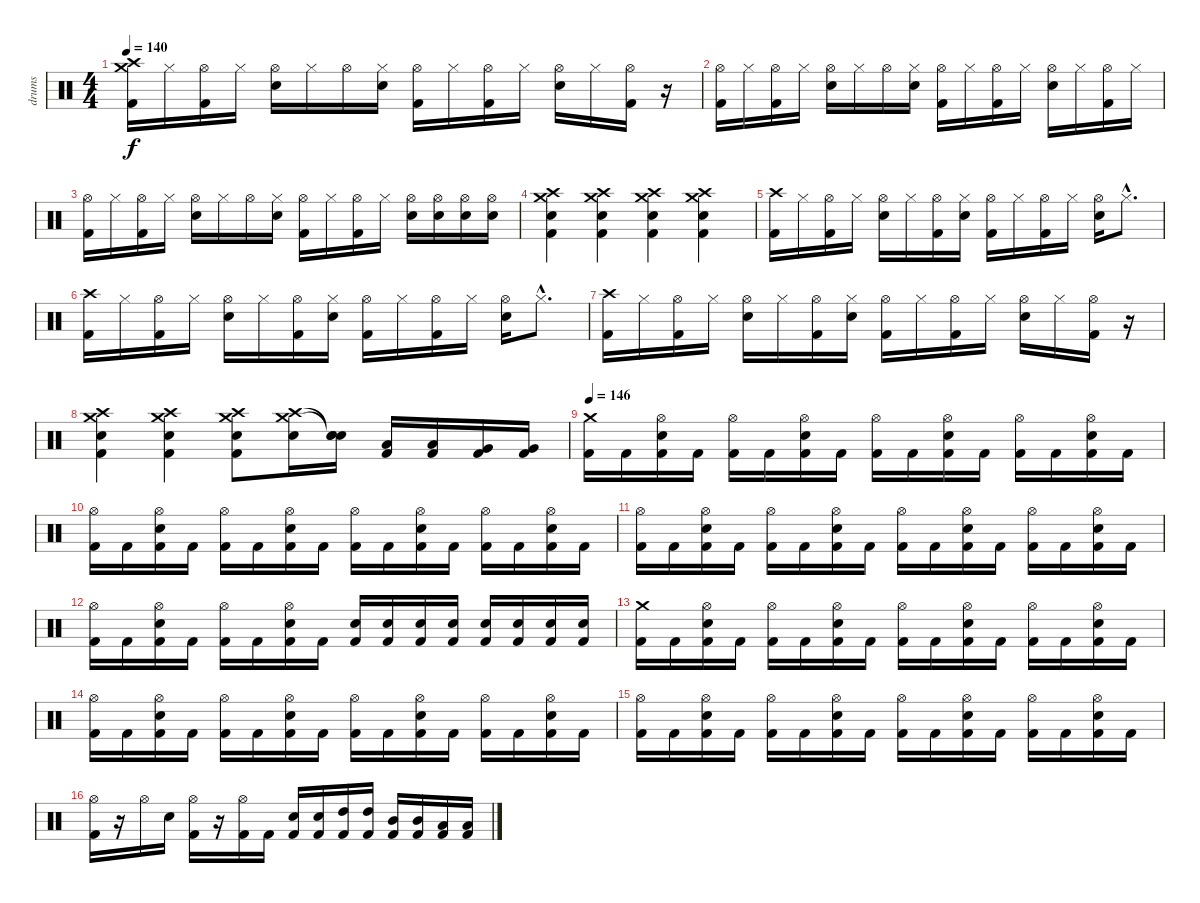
\track ("drums" "drums") {instrument percussion}
\staff {score}
\articulation defaults
\ts (4 4)
\tempo 140
\clef neutral
\ks c
("Crash high (hit)" "Crash medium (hit)" "Kick (hit) 2").16{dy f} "Hi-Hat (closed)".16 ("Hi-Hat (open)" "Kick (hit) 2").16 "Hi-Hat (closed)".16 ("Hi-Hat (open)" "Electric Snare (hit)").16 "Hi-Hat (closed)".16 "Hi-Hat (open)".16 ("Hi-Hat (closed)" "Electric Snare (hit)").16 ("Hi-Hat (open)" "Kick (hit) 2").16 "Hi-Hat (closed)".16 ("Hi-Hat (open)" "Kick (hit) 2").16 "Hi-Hat (closed)".16 ("Hi-Hat (open)" "Electric Snare (hit)").16 "Hi-Hat (closed)".16 ("Hi-Hat (open)" "Kick (hit) 2").16 r.16 |
("Hi-Hat (open)" "Kick (hit) 2").16 "Hi-Hat (closed)".16 ("Hi-Hat (open)" "Kick (hit) 2").16 "Hi-Hat (closed)".16 ("Hi-Hat (open)" "Electric Snare (hit)").16 "Hi-Hat (closed)".16 "Hi-Hat (open)".16 ("Hi-Hat (closed)" "Electric Snare (hit)").16 ("Hi-Hat (open)" "Kick (hit) 2").16 "Hi-Hat (closed)".16 ("Hi-Hat (open)" "Kick (hit) 2").16 "Hi-Hat (closed)".16 ("Hi-Hat (open)" "Electric Snare (hit)").16 "Hi-Hat (closed)".16 ("Hi-Hat (open)" "Kick (hit) 2").16 "Hi-Hat (closed)".16 |
("Hi-Hat (open)" "Kick (hit) 2").16 "Hi-Hat (closed)".16 ("Hi-Hat (open)" "Kick (hit) 2").16 "Hi-Hat (closed)".16 ("Hi-Hat (open)" "Electric Snare (hit)").16 "Hi-Hat (closed)".16 "Hi-Hat (open)".16 ("Hi-Hat (closed)" "Electric Snare (hit)").16 ("Hi-Hat (open)" "Kick (hit) 2").16 "Hi-Hat (closed)".16 ("Hi-Hat (open)" "Kick (hit) 2").16 "Hi-Hat (closed)".16 ("Hi-Hat (open)" "Electric Snare (hit)").16 ("Hi-Hat (open)" "Electric Snare (hit)").16 ("Hi-Hat (open)" "Electric Snare (hit)").16 ("Hi-Hat (open)" "Electric Snare (hit)").16 |
("Crash high (hit)" "Crash medium (hit)" "Electric Snare (hit)" "Kick (hit) 2").4 ("Crash high (hit)" "Crash medium (hit)" "Electric Snare (hit)" "Kick (hit) 2").4 ("Crash high (hit)" "Crash medium (hit)" "Electric Snare (hit)" "Kick (hit) 2").4 ("Crash high (hit)" "Crash medium (hit)" "Electric Snare (hit)" "Kick (hit) 2").4 |
("Crash high (hit)" "Kick (hit) 2").16 "Hi-Hat (closed)".16 ("Hi-Hat (open)" "Kick (hit) 2").16 "Hi-Hat (closed)".16 ("Hi-Hat (open)" "Electric Snare (hit)").16 "Hi-Hat (closed)".16 ("Hi-Hat (open)" "Kick (hit) 2").16 ("Hi-Hat (closed)" "Electric Snare (hit)").16 ("Hi-Hat (open)" "Kick (hit) 2").16 "Hi-Hat (closed)".16 ("Hi-Hat (open)" "Kick (hit) 2").16 "Hi-Hat (closed)".16 ("Hi-Hat (open)" "Electric Snare (hit)").16 "Hi-Hat (closed)"{hac}.8{d} |
("Crash high (hit)" "Kick (hit) 2").16 "Hi-Hat (closed)".16 ("Hi-Hat (open)" "Kick (hit) 2").16 "Hi-Hat (closed)".16 ("Hi-Hat (open)" "Electric Snare (hit)").16 "Hi-Hat (closed)".16 ("Hi-Hat (open)" "Kick (hit) 2").16 ("Hi-Hat (closed)" "Electric Snare (hit)").16 ("Hi-Hat (open)" "Kick (hit) 2").16 "Hi-Hat (closed)".16 ("Hi-Hat (open)" "Kick (hit) 2").16 "Hi-Hat (closed)".16 ("Hi-Hat (open)" "Electric Snare (hit)").16 "Hi-Hat (closed)"{hac}.8{d} |
("Crash high (hit)" "Kick (hit) 2").16 "Hi-Hat (closed)".16 ("Hi-Hat (open)" "Kick (hit) 2").16 "Hi-Hat (closed)".16 ("Hi-Hat (open)" "Electric Snare (hit)").16 "Hi-Hat (closed)".16 ("Hi-Hat (open)" "Kick (hit) 2").16 ("Hi-Hat (closed)" "Electric Snare (hit)").16 ("Hi-Hat (open)" "Kick (hit) 2").16 "Hi-Hat (closed)".16 ("Hi-Hat (open)" "Kick (hit) 2").16 "Hi-Hat (closed)".16 ("Hi-Hat (open)" "Electric Snare (hit)").16 "Hi-Hat (closed)".16 ("Hi-Hat (open)" "Kick (hit) 2").16 r.16 |
("Crash high (hit)" "Crash medium (hit)" "Electric Snare (hit)" "Kick (hit) 2").4 ("Crash high (hit)" "Crash medium (hit)" "Electric Snare (hit)" "Kick (hit) 2").4 ("Crash high (hit)" "Crash medium (hit)" "Electric Snare (hit)" "Kick (hit) 2").8 ("Crash high (hit)" "Crash medium (hit)" "Electric Snare (hit)").16 ("Snare (hit)"{t} "Snare (hit)"{t} "Electric Snare (hit)").16 ("Low Tom (hit)" "Kick (hit) 2").16 ("Low Tom (hit)" "Kick (hit) 2").16 ("Very Low Tom (hit)" "Kick (hit) 2").16 ("Very Low Tom (hit)" "Kick (hit) 2").16 |
\tempo 146
("Kick (hit) 2" "Crash medium (hit)").16 "Kick (hit) 2".16 ("Kick (hit) 2" "Electric Snare (hit)" "Hi-Hat (open)").16 "Kick (hit) 2".16 ("Kick (hit) 2" "Hi-Hat (open)").16 "Kick (hit) 2".16 ("Kick (hit) 2" "Electric Snare (hit)" "Hi-Hat (open)").16 "Kick (hit) 2".16 ("Kick (hit) 2" "Hi-Hat (open)").16 "Kick (hit) 2".16 ("Kick (hit) 2" "Electric Snare (hit)" "Hi-Hat (open)").16 "Kick (hit) 2".16 ("Kick (hit) 2" "Hi-Hat (open)").16 "Kick (hit) 2".16 ("Kick (hit) 2" "Electric Snare (hit)" "Hi-Hat (open)").16 "Kick (hit) 2".16 |
("Kick (hit) 2" "Hi-Hat (open)").16 "Kick (hit) 2".16 ("Kick (hit) 2" "Electric Snare (hit)" "Hi-Hat (open)").16 "Kick (hit) 2".16 ("Kick (hit) 2" "Hi-Hat (open)").16 "Kick (hit) 2".16 ("Kick (hit) 2" "Electric Snare (hit)" "Hi-Hat (open)").16 "Kick (hit) 2".16 ("Kick (hit) 2" "Hi-Hat (open)").16 "Kick (hit) 2".16 ("Kick (hit) 2" "Electric Snare (hit)" "Hi-Hat (open)").16 "Kick (hit) 2".16 ("Kick (hit) 2" "Hi-Hat (open)").16 "Kick (hit) 2".16 ("Kick (hit) 2" "Electric Snare (hit)" "Hi-Hat (open)").16 "Kick (hit) 2".16 |
("Kick (hit) 2" "Hi-Hat (open)").16 "Kick (hit) 2".16 ("Kick (hit) 2" "Electric Snare (hit)" "Hi-Hat (open)").16 "Kick (hit) 2".16 ("Kick (hit) 2" "Hi-Hat (open)").16 "Kick (hit) 2".16 ("Kick (hit) 2" "Electric Snare (hit)" "Hi-Hat (open)").16 "Kick (hit) 2".16 ("Kick (hit) 2" "Hi-Hat (open)").16 "Kick (hit) 2".16 ("Kick (hit) 2" "Electric Snare (hit)" "Hi-Hat (open)").16 "Kick (hit) 2".16 ("Kick (hit) 2" "Hi-Hat (open)").16 "Kick (hit) 2".16 ("Kick (hit) 2" "Electric Snare (hit)" "Hi-Hat (open)").16 "Kick (hit) 2".16 |
("Kick (hit) 2" "Hi-Hat (open)").16 "Kick (hit) 2".16 ("Kick (hit) 2" "Electric Snare (hit)" "Hi-Hat (open)").16 "Kick (hit) 2".16 ("Kick (hit) 2" "Hi-Hat (open)").16 "Kick (hit) 2".16 ("Kick (hit) 2" "Electric Snare (hit)" "Hi-Hat (open)").16 "Kick (hit) 2".16 ("Kick (hit) 2" "Electric Snare (hit)").16 ("Kick (hit) 2" "Electric Snare (hit)").16 ("Kick (hit) 2" "Electric Snare (hit)").16 ("Kick (hit) 2" "Electric Snare (hit)").16 ("Kick (hit) 2" "Electric Snare (hit)").16 ("Kick (hit) 2" "Electric Snare (hit)").16 ("Kick (hit) 2" "Electric Snare (hit)").16 ("Kick (hit) 2" "Electric Snare (hit)").16 |
("Kick (hit) 2" "Crash medium (hit)").16 "Kick (hit) 2".16 ("Kick (hit) 2" "Electric Snare (hit)" "Hi-Hat (open)").16 "Kick (hit) 2".16 ("Kick (hit) 2" "Hi-Hat (open)").16 "Kick (hit) 2".16 ("Kick (hit) 2" "Electric Snare (hit)" "Hi-Hat (open)").16 "Kick (hit) 2".16 ("Kick (hit) 2" "Hi-Hat (open)").16 "Kick (hit) 2".16 ("Kick (hit) 2" "Electric Snare (hit)" "Hi-Hat (open)").16 "Kick (hit) 2".16 ("Kick (hit) 2" "Hi-Hat (open)").16 "Kick (hit) 2".16 ("Kick (hit) 2" "Electric Snare (hit)" "Hi-Hat (open)").16 "Kick (hit) 2".16 |
("Kick (hit) 2" "Hi-Hat (open)").16 "Kick (hit) 2".16 ("Kick (hit) 2" "Electric Snare (hit)" "Hi-Hat (open)").16 "Kick (hit) 2".16 ("Kick (hit) 2" "Hi-Hat (open)").16 "Kick (hit) 2".16 ("Kick (hit) 2" "Electric Snare (hit)" "Hi-Hat (open)").16 "Kick (hit) 2".16 ("Kick (hit) 2" "Hi-Hat (open)").16 "Kick (hit) 2".16 ("Kick (hit) 2" "Electric Snare (hit)" "Hi-Hat (open)").16 "Kick (hit) 2".16 ("Kick (hit) 2" "Hi-Hat (open)").16 "Kick (hit) 2".16 ("Kick (hit) 2" "Electric Snare (hit)" "Hi-Hat (open)").16 "Kick (hit) 2".16 |
("Kick (hit) 2" "Hi-Hat (open)").16 "Kick (hit) 2".16 ("Kick (hit) 2" "Electric Snare (hit)" "Hi-Hat (open)").16 "Kick (hit) 2".16 ("Kick (hit) 2" "Hi-Hat (open)").16 "Kick (hit) 2".16 ("Kick (hit) 2" "Electric Snare (hit)" "Hi-Hat (open)").16 "Kick (hit) 2".16 ("Kick (hit) 2" "Hi-Hat (open)").16 "Kick (hit) 2".16 ("Kick (hit) 2" "Electric Snare (hit)" "Hi-Hat (open)").16 "Kick (hit) 2".16 ("Kick (hit) 2" "Hi-Hat (open)").16 "Kick (hit) 2".16 ("Kick (hit) 2" "Electric Snare (hit)" "Hi-Hat (open)").16 "Kick (hit) 2".16 |
("Kick (hit) 2" "Hi-Hat (open)").16 r.16 "Hi-Hat (open)".16 "Electric Snare (hit)".16 ("Kick (hit) 2" "Hi-Hat (open)").16 r.16 ("Kick (hit) 2" "Hi-Hat (open)").16 "Kick (hit) 2".16 ("Kick (hit) 2" "Electric Snare (hit)").16 ("Kick (hit) 2" "Electric Snare (hit)").16 ("Kick (hit) 2" "High Tom (hit)").16 ("Kick (hit) 2" "High Tom (hit)").16 ("Kick (hit) 2" "Mid Tom (hit)").16 ("Kick (hit) 2" "Mid Tom (hit)").16 ("Kick (hit) 2" "Low Tom (hit)").16 ("Kick (hit) 2" "Low Tom (hit)").16
